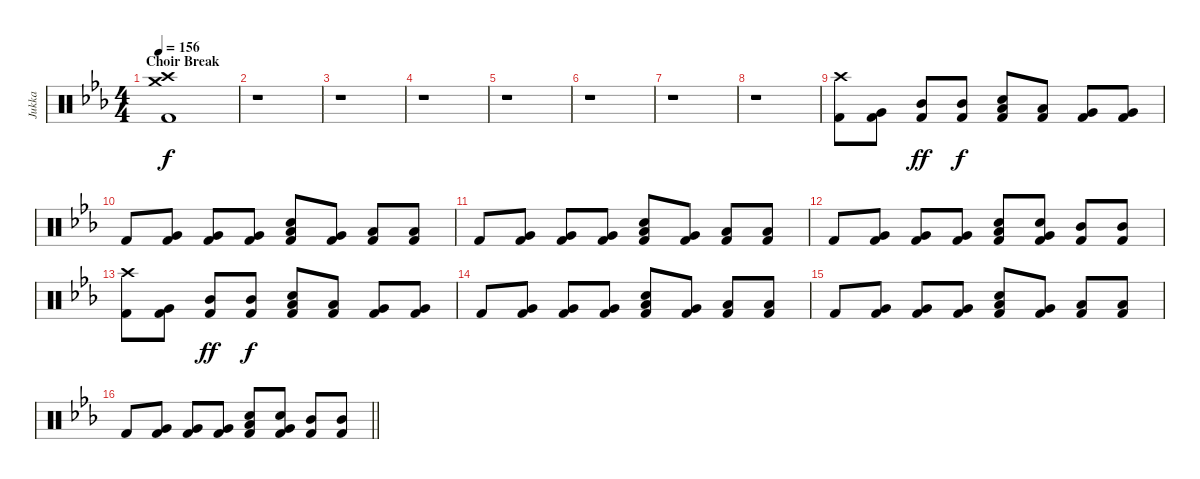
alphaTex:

\track ("Jukka" "Jukka") {instrument percussion}
\staff {score}
\articulation defaults
\ts (4 4)
\section ("" "Choir Break")
\tempo 156
\clef neutral
\ks cminor
("Crash medium (hit)" "Crash high (hit)" "Kick (hit) 2").1{dy f} |
r.1 |
r.1 |
r.1 |
r.1 |
r.1 |
r.1 |
r.1 |
("Crash high (hit)" "Kick (hit) 2").8 ("Very Low Tom (hit)" "Kick (hit) 2").8 ("Mid Tom (hit)" "Kick (hit) 2").8{dy ff} ("Mid Tom (hit)" "Kick (hit) 2").8{dy f} ("Electric Snare (hit)" "Low Tom (hit)" "Kick (hit) 2").8 ("Low Tom (hit)" "Kick (hit) 2").8 ("Very Low Tom (hit)" "Kick (hit) 2").8 ("Very Low Tom (hit)" "Kick (hit) 2").8 |
"Kick (hit) 2".8 ("Very Low Tom (hit)" "Kick (hit) 2").8 ("Very Low Tom (hit)" "Kick (hit) 2").8 ("Very Low Tom (hit)" "Kick (hit) 2").8 ("Electric Snare (hit)" "Low Tom (hit)" "Kick (hit) 2").8 ("Very Low Tom (hit)" "Kick (hit) 2").8 ("Low Tom (hit)" "Kick (hit) 2").8 ("Low Tom (hit)" "Kick (hit) 2").8 |
"Kick (hit) 2".8 ("Very Low Tom (hit)" "Kick (hit) 2").8 ("Very Low Tom (hit)" "Kick (hit) 2").8 ("Very Low Tom (hit)" "Kick (hit) 2").8 ("Electric Snare (hit)" "Low Tom (hit)" "Kick (hit) 2").8 ("Very Low Tom (hit)" "Kick (hit) 2").8 ("Low Tom (hit)" "Kick (hit) 2").8 ("Low Tom (hit)" "Kick (hit) 2").8 |
"Kick (hit) 2".8 ("Very Low Tom (hit)" "Kick (hit) 2").8 ("Very Low Tom (hit)" "Kick (hit) 2").8 ("Very Low Tom (hit)" "Kick (hit) 2").8 ("Electric Snare (hit)" "Low Tom (hit)" "Kick (hit) 2").8 ("Electric Snare (hit)" "Very Low Tom (hit)" "Kick (hit) 2").8 ("Mid Tom (hit)" "Kick (hit) 2").8 ("Mid Tom (hit)" "Kick (hit) 2").8 |
("Crash high (hit)" "Kick (hit) 2").8 ("Very Low Tom (hit)" "Kick (hit) 2").8 ("Mid Tom (hit)" "Kick (hit) 2").8{dy ff} ("Mid Tom (hit)" "Kick (hit) 2").8{dy f} ("Electric Snare (hit)" "Low Tom (hit)" "Kick (hit) 2").8 ("Low Tom (hit)" "Kick (hit) 2").8 ("Very Low Tom (hit)" "Kick (hit) 2").8 ("Very Low Tom (hit)" "Kick (hit) 2").8 |
"Kick (hit) 2".8 ("Very Low Tom (hit)" "Kick (hit) 2").8 ("Very Low Tom (hit)" "Kick (hit) 2").8 ("Very Low Tom (hit)" "Kick (hit) 2").8 ("Electric Snare (hit)" "Low Tom (hit)" "Kick (hit) 2").8 ("Very Low Tom (hit)" "Kick (hit) 2").8 ("Low Tom (hit)" "Kick (hit) 2").8 ("Low Tom (hit)" "Kick (hit) 2").8 |
"Kick (hit) 2".8 ("Very Low Tom (hit)" "Kick (hit) 2").8 ("Very Low Tom (hit)" "Kick (hit) 2").8 ("Very Low Tom (hit)" "Kick (hit) 2").8 ("Electric Snare (hit)" "Low Tom (hit)" "Kick (hit) 2").8 ("Very Low Tom (hit)" "Kick (hit) 2").8 ("Low Tom (hit)" "Kick (hit) 2").8 ("Low Tom (hit)" "Kick (hit) 2").8 |
\barLineRight lightlight "Kick (hit) 2".8
("Very Low Tom (hit)" "Kick (hit) 2").8 ("Very Low Tom (hit)" "Kick (hit) 2").8 ("Very Low Tom (hit)" "Kick (hit) 2").8 ("Electric Snare (hit)" "Low Tom (hit)" "Kick (hit) 2").8 ("Electric Snare (hit)" "Very Low Tom (hit)" "Kick (hit) 2").8 ("Mid Tom (hit)" "Kick (hit) 2").8 ("Mid Tom (hit)" "Kick (hit) 2").8
